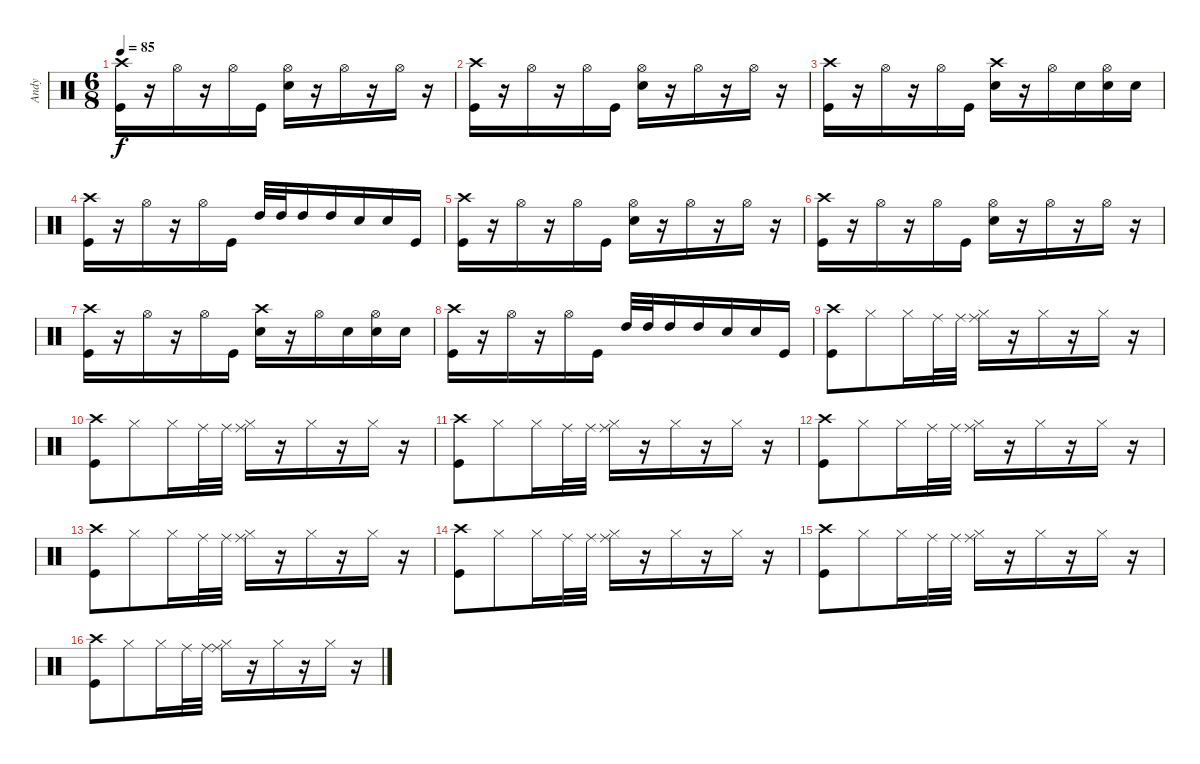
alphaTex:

\track ("Andy" "Andy") {instrument percussion}
\staff {score}
\articulation defaults
\ts (6 8)
\tempo 85
\clef neutral
\ks c
("Crash high (hit)" "Kick (hit)").16{dy f} r.16 "Hi-Hat (open)".16 r.16 "Hi-Hat (open)".16 "Kick (hit)".16 ("Hi-Hat (open)" "Snare (hit) 2").16 r.16 "Hi-Hat (open)".16 r.16 "Hi-Hat (open)".16 r.16 |
("Crash high (hit)" "Kick (hit)").16 r.16 "Hi-Hat (open)".16 r.16 "Hi-Hat (open)".16 "Kick (hit)".16 ("Hi-Hat (open)" "Snare (hit) 2").16 r.16 "Hi-Hat (open)".16 r.16 "Hi-Hat (open)".16 r.16 |
("Crash high (hit)" "Kick (hit)").16 r.16 "Hi-Hat (open)".16 r.16 "Hi-Hat (open)".16 "Kick (hit)".16 ("Crash high (hit)" "Snare (hit) 2").16 r.16 "Hi-Hat (open)".16 "Snare (hit) 2".16 ("Hi-Hat (open)" "Snare (hit) 2").16 "Snare (hit) 2".16 |
("Crash high (hit)" "Kick (hit)").16 r.16 "Hi-Hat (open)".16 r.16 "Hi-Hat (open)".16 "Kick (hit)".16 "High Tom (hit)".32 "High Tom (hit)".32 "High Tom (hit)".16 "High Tom (hit)".16 "Snare (hit) 2".16 "Snare (hit) 2".16 "Kick (hit)".16 |
("Crash high (hit)" "Kick (hit)").16 r.16 "Hi-Hat (open)".16 r.16 "Hi-Hat (open)".16 "Kick (hit)".16 ("Hi-Hat (open)" "Snare (hit) 2").16 r.16 "Hi-Hat (open)".16 r.16 "Hi-Hat (open)".16 r.16 |
("Crash high (hit)" "Kick (hit)").16 r.16 "Hi-Hat (open)".16 r.16 "Hi-Hat (open)".16 "Kick (hit)".16 ("Hi-Hat (open)" "Snare (hit) 2").16 r.16 "Hi-Hat (open)".16 r.16 "Hi-Hat (open)".16 r.16 |
("Crash high (hit)" "Kick (hit)").16 r.16 "Hi-Hat (open)".16 r.16 "Hi-Hat (open)".16 "Kick (hit)".16 ("Crash high (hit)" "Snare (hit) 2").16 r.16 "Hi-Hat (open)".16 "Snare (hit) 2".16 ("Hi-Hat (open)" "Snare (hit) 2").16 "Snare (hit) 2".16 |
("Crash high (hit)" "Kick (hit)").16 r.16 "Hi-Hat (open)".16 r.16 "Hi-Hat (open)".16 "Kick (hit)".16 "High Tom (hit)".32 "High Tom (hit)".32 "High Tom (hit)".16 "High Tom (hit)".16 "Snare (hit) 2".16 "Snare (hit) 2".16 "Kick (hit)".16 |
("Kick (hit)" "Crash high (hit)").8 "Hi-Hat (closed)".8 "Hi-Hat (closed)".16 "Ride (middle)".32 "Ride (middle)".32 ("Ride (middle)" "Hi-Hat (closed)").16 r.16 "Hi-Hat (closed)".16 r.16 "Hi-Hat (closed)".16 r.16 |
("Kick (hit)" "Crash high (hit)").8 "Hi-Hat (closed)".8 "Hi-Hat (closed)".16 "Ride (middle)".32 "Ride (middle)".32 ("Ride (middle)" "Hi-Hat (closed)").16 r.16 "Hi-Hat (closed)".16 r.16 "Hi-Hat (closed)".16 r.16 |
("Kick (hit)" "Crash high (hit)").8 "Hi-Hat (closed)".8 "Hi-Hat (closed)".16 "Ride (middle)".32 "Ride (middle)".32 ("Ride (middle)" "Hi-Hat (closed)").16 r.16 "Hi-Hat (closed)".16 r.16 "Hi-Hat (closed)".16 r.16 |
("Kick (hit)" "Crash high (hit)").8 "Hi-Hat (closed)".8 "Hi-Hat (closed)".16 "Ride (middle)".32 "Ride (middle)".32 ("Ride (middle)" "Hi-Hat (closed)").16 r.16 "Hi-Hat (closed)".16 r.16 "Hi-Hat (closed)".16 r.16 |
("Kick (hit)" "Crash high (hit)").8 "Hi-Hat (closed)".8 "Hi-Hat (closed)".16 "Ride (middle)".32 "Ride (middle)".32 ("Ride (middle)" "Hi-Hat (closed)").16 r.16 "Hi-Hat (closed)".16 r.16 "Hi-Hat (closed)".16 r.16 |
("Kick (hit)" "Crash high (hit)").8 "Hi-Hat (closed)".8 "Hi-Hat (closed)".16 "Ride (middle)".32 "Ride (middle)".32 ("Ride (middle)" "Hi-Hat (closed)").16 r.16 "Hi-Hat (closed)".16 r.16 "Hi-Hat (closed)".16 r.16 |
("Kick (hit)" "Crash high (hit)").8 "Hi-Hat (closed)".8 "Hi-Hat (closed)".16 "Ride (middle)".32 "Ride (middle)".32 ("Ride (middle)" "Hi-Hat (closed)").16 r.16 "Hi-Hat (closed)".16 r.16 "Hi-Hat (closed)".16 r.16 |
("Kick (hit)" "Crash high (hit)").8 "Hi-Hat (closed)".8 "Hi-Hat (closed)".16 "Ride (middle)".32 "Ride (middle)".32 ("Ride (middle)" "Hi-Hat (closed)").16 r.16 "Hi-Hat (closed)".16 r.16 "Hi-Hat (closed)".16 r.16
